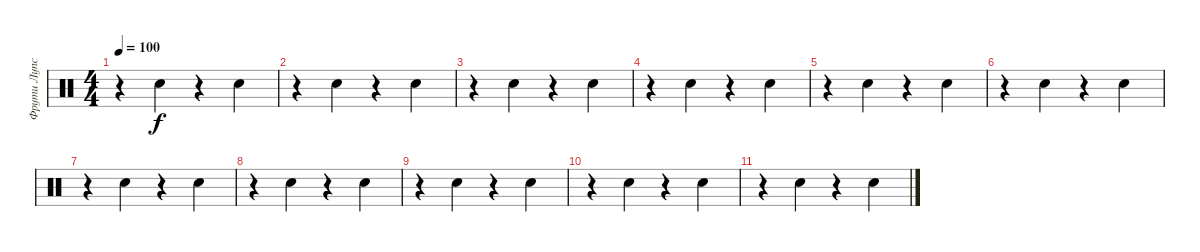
\track ("Фрути Лупс" "Фрути Лупс") {instrument percussion}
\staff {score}
\articulation defaults
\ts (4 4)
\tempo 100
\clef neutral
\ks c
r.4{dy f} "Hand Clap (hit)".4 r.4 "Hand Clap (hit)".4 |
r.4 "Hand Clap (hit)".4 r.4 "Hand Clap (hit)".4 |
r.4 "Hand Clap (hit)".4 r.4 "Hand Clap (hit)".4 |
r.4 "Hand Clap (hit)".4 r.4 "Hand Clap (hit)".4 |
r.4 "Hand Clap (hit)".4 r.4 "Hand Clap (hit)".4 |
r.4 "Hand Clap (hit)".4 r.4 "Hand Clap (hit)".4 |
r.4 "Hand Clap (hit)".4 r.4 "Hand Clap (hit)".4 |
r.4 "Hand Clap (hit)".4 r.4 "Hand Clap (hit)".4 |
r.4 "Hand Clap (hit)".4 r.4 "Hand Clap (hit)".4 |
r.4 "Hand Clap (hit)".4 r.4 "Hand Clap (hit)".4 |
r.4 "Hand Clap (hit)".4 r.4 "Hand Clap (hit)".4
